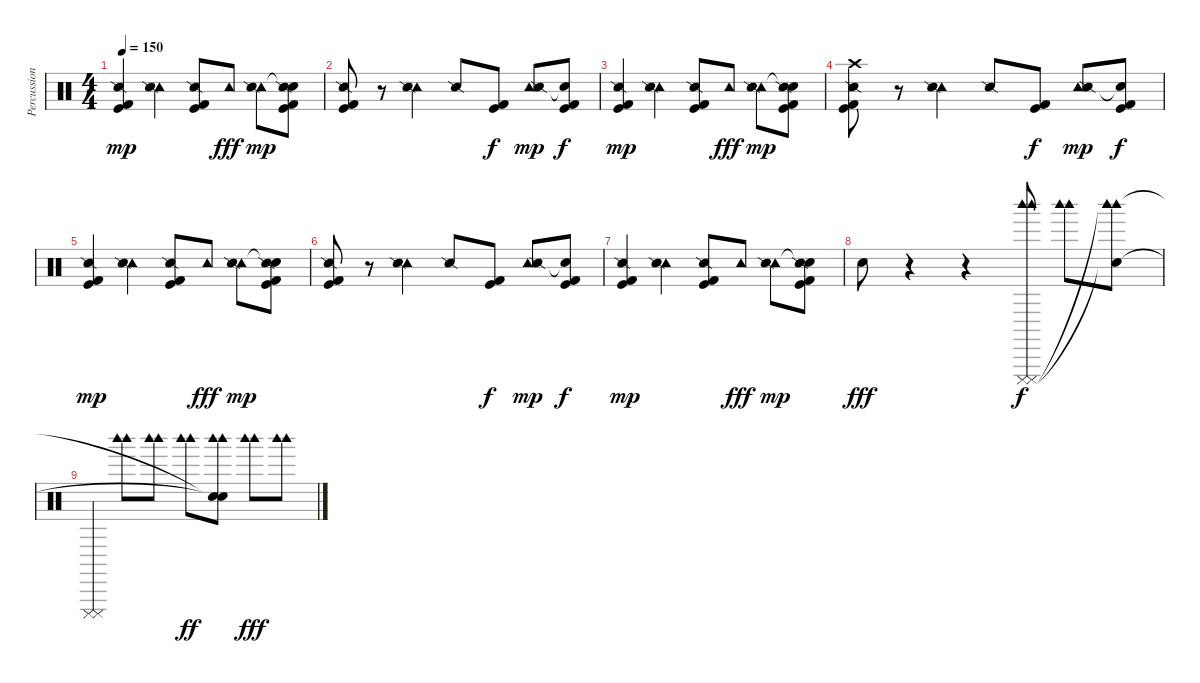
\track ("Percussion" "Percussion") {instrument percussion}
\staff {score}
\articulation defaults
\ts (4 4)
\tempo 150
\clef neutral
\ks c
("Snare (side stick) 2" "Kick (hit)" "Kick (hit) 2").4{dy mp} ("Tambourine (hit)" "Snare (side stick) 2").4 ("Snare (side stick) 2" "Kick (hit)" "Kick (hit) 2").8 "Tambourine (hit)".8{dy fff} ("Tambourine (hit)" "Snare (side stick) 2").8{dy mp} ("Snare (hit)"{t} "Snare (side stick) 2" "Kick (hit)" "Kick (hit) 2").8 |
("Snare (side stick) 2" "Kick (hit)" "Kick (hit) 2").8 r.8 ("Tambourine (hit)" "Snare (side stick) 2").4 "Snare (side stick) 2".8 ("Kick (hit)" "Kick (hit) 2").8{dy f} ("Tambourine (hit)" "Snare (side stick) 2").8{dy mp} ("Snare (hit)"{t} "Kick (hit)" "Kick (hit) 2").8{dy f} |
("Snare (side stick) 2" "Kick (hit)" "Kick (hit) 2").4{dy mp} ("Tambourine (hit)" "Snare (side stick) 2").4 ("Snare (side stick) 2" "Kick (hit)" "Kick (hit) 2").8 "Tambourine (hit)".8{dy fff} ("Tambourine (hit)" "Snare (side stick) 2").8{dy mp} ("Snare (hit)"{t} "Snare (side stick) 2" "Kick (hit)" "Kick (hit) 2").8 |
("Crash high (hit)" "Snare (side stick) 2" "Kick (hit)" "Kick (hit) 2").8 r.8 ("Tambourine (hit)" "Snare (side stick) 2").4 "Snare (side stick) 2".8 ("Kick (hit)" "Kick (hit) 2").8{dy f} ("Tambourine (hit)" "Snare (side stick) 2").8{dy mp} ("Snare (hit)"{t} "Kick (hit)" "Kick (hit) 2").8{dy f} |
("Snare (side stick) 2" "Kick (hit)" "Kick (hit) 2").4{dy mp} ("Tambourine (hit)" "Snare (side stick) 2").4 ("Snare (side stick) 2" "Kick (hit)" "Kick (hit) 2").8 "Tambourine (hit)".8{dy fff} ("Tambourine (hit)" "Snare (side stick) 2").8{dy mp} ("Snare (hit)"{t} "Snare (side stick) 2" "Kick (hit)" "Kick (hit) 2").8 |
("Snare (side stick) 2" "Kick (hit)" "Kick (hit) 2").8 r.8 ("Tambourine (hit)" "Snare (side stick) 2").4 "Snare (side stick) 2".8 ("Kick (hit)" "Kick (hit) 2").8{dy f} ("Tambourine (hit)" "Snare (side stick) 2").8{dy mp} ("Snare (hit)"{t} "Kick (hit)" "Kick (hit) 2").8{dy f} |
("Snare (side stick) 2" "Kick (hit)" "Kick (hit) 2").4{dy mp} ("Tambourine (hit)" "Snare (side stick) 2").4 ("Snare (side stick) 2" "Kick (hit)" "Kick (hit) 2").8 "Tambourine (hit)".8{dy fff} ("Tambourine (hit)" "Snare (side stick) 2").8{dy mp} ("Snare (hit)"{t} "Snare (side stick) 2" "Kick (hit)" "Kick (hit) 2").8 |
"Metronome (bell)".8{dy fff} r.4 r.4 ("Woodblock high (hit)" "Woodblock high (hit)" "Cuica (mute)" "Cuica (mute)").8{bd 480 dy f} ("Woodblock high (hit)" "Woodblock high (hit)").8{bd 480} ("Woodblock high (hit)" "Woodblock high (hit)" "Woodblock high (hit)"{t} "Snare (hit)"{t}).8{bd 480} |
("Cuica (mute)" "Cuica (mute)").4 ("Woodblock high (hit)" "Woodblock high (hit)").8{bd 480} ("Woodblock high (hit)" "Woodblock high (hit)").8{bd 480} ("Woodblock high (hit)" "Woodblock high (hit)").8{bd 480 dy ff} ("Woodblock high (hit)" "Woodblock high (hit)" "Snare (hit)"{t} "Snare (hit)"{t}).8{bd 480} ("Woodblock high (hit)" "Woodblock high (hit)").8{bd 480 dy fff} ("Woodblock high (hit)" "Woodblock high (hit)").8{bd 480}
